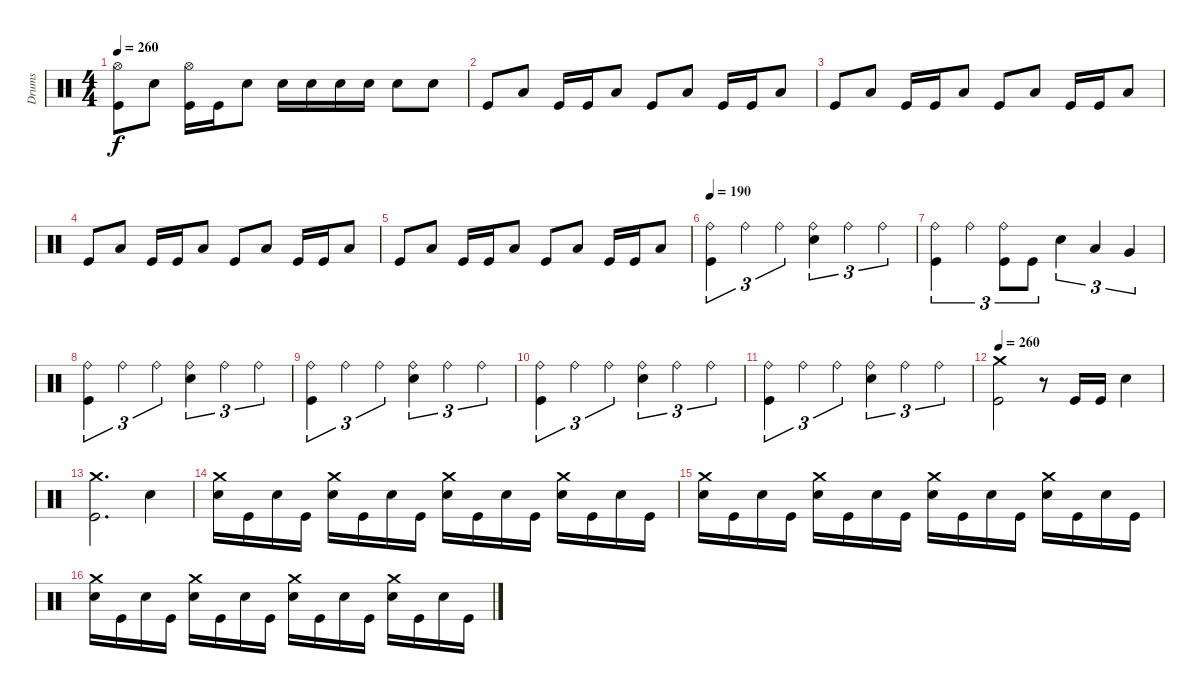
\track ("Drums" "Drums") {instrument percussion}
\staff {score}
\articulation defaults
\ts (4 4)
\tempo 260
\clef neutral
\ks c
("Hi-Hat (open)" "Kick (hit)").8{dy f} "Electric Snare (hit)".8 ("Hi-Hat (open)" "Kick (hit)").16 "Kick (hit)".16 "Electric Snare (hit)".8 "Electric Snare (hit)".16 "Electric Snare (hit)".16 "Electric Snare (hit)".16 "Electric Snare (hit)".16 "Electric Snare (hit)".8 "Electric Snare (hit)".8 |
"Kick (hit)".8 "Low Floor Tom (hit)".8 "Kick (hit)".16 "Kick (hit)".16 "Low Floor Tom (hit)".8 "Kick (hit)".8 "Low Floor Tom (hit)".8 "Kick (hit)".16 "Kick (hit)".16 "Low Floor Tom (hit)".8 |
"Kick (hit)".8 "Low Floor Tom (hit)".8 "Kick (hit)".16 "Kick (hit)".16 "Low Floor Tom (hit)".8 "Kick (hit)".8 "Low Floor Tom (hit)".8 "Kick (hit)".16 "Kick (hit)".16 "Low Floor Tom (hit)".8 |
"Kick (hit)".8 "Low Floor Tom (hit)".8 "Kick (hit)".16 "Kick (hit)".16 "Low Floor Tom (hit)".8 "Kick (hit)".8 "Low Floor Tom (hit)".8 "Kick (hit)".16 "Kick (hit)".16 "Low Floor Tom (hit)".8 |
"Kick (hit)".8 "Low Floor Tom (hit)".8 "Kick (hit)".16 "Kick (hit)".16 "Low Floor Tom (hit)".8 "Kick (hit)".8 "Low Floor Tom (hit)".8 "Kick (hit)".16 "Kick (hit)".16 "Low Floor Tom (hit)".8 |
\tempo 190
("Ride (bell)" "Kick (hit)").4{tu (3 2)} "Ride (bell)".4{tu (3 2)} "Ride (bell)".4{tu (3 2)} ("Ride (bell)" "Electric Snare (hit)").4{tu (3 2)} "Ride (bell)".4{tu (3 2)} "Ride (bell)".4{tu (3 2)} |
("Ride (bell)" "Kick (hit)").4{tu (3 2)} "Ride (bell)".4{tu (3 2)} ("Ride (bell)" "Kick (hit)").8{tu (3 2)} "Kick (hit)".8{tu (3 2)} "Electric Snare (hit)".4{tu (3 2)} "Low Tom (hit)".4{tu (3 2)} "Very Low Tom (hit)".4{tu (3 2)} |
("Ride (bell)" "Kick (hit)").4{tu (3 2)} "Ride (bell)".4{tu (3 2)} "Ride (bell)".4{tu (3 2)} ("Ride (bell)" "Electric Snare (hit)").4{tu (3 2)} "Ride (bell)".4{tu (3 2)} "Ride (bell)".4{tu (3 2)} |
("Ride (bell)" "Kick (hit)").4{tu (3 2)} "Ride (bell)".4{tu (3 2)} "Ride (bell)".4{tu (3 2)} ("Ride (bell)" "Electric Snare (hit)").4{tu (3 2)} "Ride (bell)".4{tu (3 2)} "Ride (bell)".4{tu (3 2)} |
("Ride (bell)" "Kick (hit)").4{tu (3 2)} "Ride (bell)".4{tu (3 2)} "Ride (bell)".4{tu (3 2)} ("Ride (bell)" "Electric Snare (hit)").4{tu (3 2)} "Ride (bell)".4{tu (3 2)} "Ride (bell)".4{tu (3 2)} |
("Ride (bell)" "Kick (hit)").4{tu (3 2)} "Ride (bell)".4{tu (3 2)} "Ride (bell)".4{tu (3 2)} ("Ride (bell)" "Electric Snare (hit)").4{tu (3 2)} "Ride (bell)".4{tu (3 2)} "Ride (bell)".4{tu (3 2)} |
\tempo 260
("Crash medium (hit)" "Kick (hit)").2 r.8 "Kick (hit)".16 "Kick (hit)".16 "Electric Snare (hit)".4 |
("Crash medium (hit)" "Kick (hit)").2{d} "Electric Snare (hit)".4 |
("Crash medium (hit)" "Electric Snare (hit)").16 "Kick (hit)".16 "Electric Snare (hit)".16 "Kick (hit)".16 ("Crash medium (hit)" "Electric Snare (hit)").16 "Kick (hit)".16 "Electric Snare (hit)".16 "Kick (hit)".16 ("Crash medium (hit)" "Electric Snare (hit)").16 "Kick (hit)".16 "Electric Snare (hit)".16 "Kick (hit)".16 ("Crash medium (hit)" "Electric Snare (hit)").16 "Kick (hit)".16 "Electric Snare (hit)".16 "Kick (hit)".16 |
("Crash medium (hit)" "Electric Snare (hit)").16 "Kick (hit)".16 "Electric Snare (hit)".16 "Kick (hit)".16 ("Crash medium (hit)" "Electric Snare (hit)").16 "Kick (hit)".16 "Electric Snare (hit)".16 "Kick (hit)".16 ("Crash medium (hit)" "Electric Snare (hit)").16 "Kick (hit)".16 "Electric Snare (hit)".16 "Kick (hit)".16 ("Crash medium (hit)" "Electric Snare (hit)").16 "Kick (hit)".16 "Electric Snare (hit)".16 "Kick (hit)".16 |
("Crash medium (hit)" "Electric Snare (hit)").16 "Kick (hit)".16 "Electric Snare (hit)".16 "Kick (hit)".16 ("Crash medium (hit)" "Electric Snare (hit)").16 "Kick (hit)".16 "Electric Snare (hit)".16 "Kick (hit)".16 ("Crash medium (hit)" "Electric Snare (hit)").16 "Kick (hit)".16 "Electric Snare (hit)".16 "Kick (hit)".16 ("Crash medium (hit)" "Electric Snare (hit)").16 "Kick (hit)".16 "Electric Snare (hit)".16 "Kick (hit)".16
